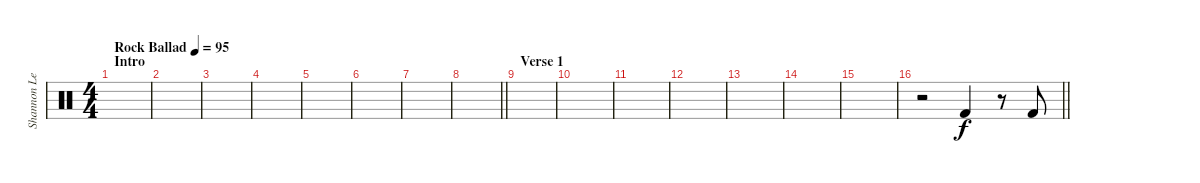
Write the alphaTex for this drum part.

\track ("Shannon Leto (Percussion)" "Shannon Le") {instrument percussion}
\staff {score}
\articulation defaults
\ts (4 4)
\section ("" "Intro")
\tempo (95 "Rock Ballad")
\clef neutral
\ks c
|
|
|
|
|
|
|
\barLineRight lightlight
|
\section ("" "Verse 1")
|
|
|
|
|
|
|
\barLineRight lightlight
r.2 "Kick (hit) 2".4 r.8 "Kick (hit) 2".8
